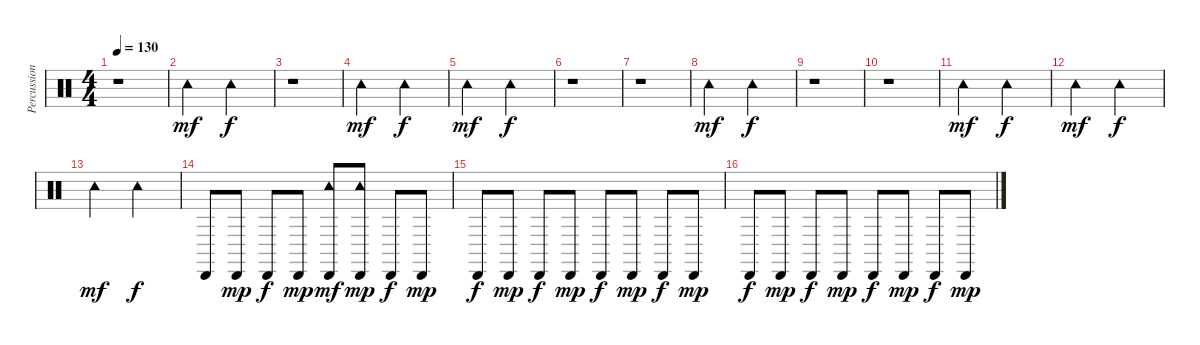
\track ("Percussion" "Percussion") {instrument percussion}
\staff {score}
\articulation defaults
\ts (4 4)
\tempo 130
\clef neutral
\ks c
r.1{dy f} |
"Tambourine (hit)".2{dy mf} "Tambourine (hit)".2{dy f} |
r.1 |
"Tambourine (hit)".2{dy mf} "Tambourine (hit)".2{dy f} |
"Tambourine (hit)".2{dy mf} "Tambourine (hit)".2{dy f} |
r.1 |
r.1 |
"Tambourine (hit)".2{dy mf} "Tambourine (hit)".2{dy f} |
r.1 |
r.1 |
"Tambourine (hit)".2{dy mf} "Tambourine (hit)".2{dy f} |
"Tambourine (hit)".2{dy mf} "Tambourine (hit)".2{dy f} |
"Tambourine (hit)".2{dy mf} "Tambourine (hit)".2{dy f} |
"Cabasa (hit)".8 "Cabasa (hit)".8{dy mp} "Cabasa (hit)".8{dy f} "Cabasa (hit)".8{dy mp} ("Tambourine (hit)" "Cabasa (hit)").8{dy mf} ("Tambourine (hit)" "Cabasa (hit)").8{dy mp} "Cabasa (hit)".8{dy f} "Cabasa (hit)".8{dy mp} |
"Cabasa (hit)".8{dy f} "Cabasa (hit)".8{dy mp} "Cabasa (hit)".8{dy f} "Cabasa (hit)".8{dy mp} "Cabasa (hit)".8{dy f} "Cabasa (hit)".8{dy mp} "Cabasa (hit)".8{dy f} "Cabasa (hit)".8{dy mp} |
"Cabasa (hit)".8{dy f} "Cabasa (hit)".8{dy mp} "Cabasa (hit)".8{dy f} "Cabasa (hit)".8{dy mp} "Cabasa (hit)".8{dy f} "Cabasa (hit)".8{dy mp} "Cabasa (hit)".8{dy f} "Cabasa (hit)".8{dy mp}
